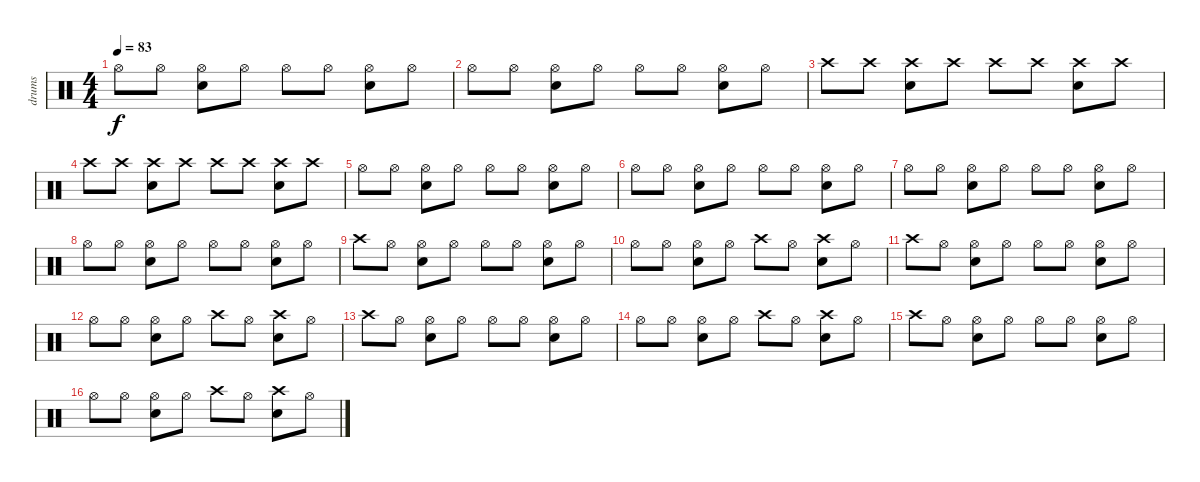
\track ("drums" "drums") {instrument percussion}
\staff {score}
\articulation defaults
\ts (4 4)
\tempo 83
\clef neutral
\ks c "Hi-Hat (open)".8{dy f} "Hi-Hat (open)".8
("Snare (hit) 2" "Hi-Hat (open)").8 "Hi-Hat (open)".8 "Hi-Hat (open)".8 "Hi-Hat (open)".8 ("Snare (hit) 2" "Hi-Hat (open)").8 "Hi-Hat (open)".8 |
"Hi-Hat (open)".8 "Hi-Hat (open)".8 ("Snare (hit) 2" "Hi-Hat (open)").8 "Hi-Hat (open)".8 "Hi-Hat (open)".8 "Hi-Hat (open)".8 ("Snare (hit) 2" "Hi-Hat (open)").8 "Hi-Hat (open)".8 |
"Crash high (hit)".8 "Crash high (hit)".8 ("Crash high (hit)" "Snare (hit) 2").8 "Crash high (hit)".8 "Crash high (hit)".8 "Crash high (hit)".8 ("Crash high (hit)" "Snare (hit) 2").8 "Crash high (hit)".8 |
"Crash high (hit)".8 "Crash high (hit)".8 ("Crash high (hit)" "Snare (hit) 2").8 "Crash high (hit)".8 "Crash high (hit)".8 "Crash high (hit)".8 ("Crash high (hit)" "Snare (hit) 2").8 "Crash high (hit)".8 |
"Hi-Hat (open)".8 "Hi-Hat (open)".8 ("Snare (hit) 2" "Hi-Hat (open)").8 "Hi-Hat (open)".8 "Hi-Hat (open)".8 "Hi-Hat (open)".8 ("Snare (hit) 2" "Hi-Hat (open)").8 "Hi-Hat (open)".8 |
"Hi-Hat (open)".8 "Hi-Hat (open)".8 ("Snare (hit) 2" "Hi-Hat (open)").8 "Hi-Hat (open)".8 "Hi-Hat (open)".8 "Hi-Hat (open)".8 ("Snare (hit) 2" "Hi-Hat (open)").8 "Hi-Hat (open)".8 |
"Hi-Hat (open)".8 "Hi-Hat (open)".8 ("Snare (hit) 2" "Hi-Hat (open)").8 "Hi-Hat (open)".8 "Hi-Hat (open)".8 "Hi-Hat (open)".8 ("Snare (hit) 2" "Hi-Hat (open)").8 "Hi-Hat (open)".8 |
"Hi-Hat (open)".8 "Hi-Hat (open)".8 ("Snare (hit) 2" "Hi-Hat (open)").8 "Hi-Hat (open)".8 "Hi-Hat (open)".8 "Hi-Hat (open)".8 ("Snare (hit) 2" "Hi-Hat (open)").8 "Hi-Hat (open)".8 |
"Crash high (hit)".8 "Hi-Hat (open)".8 ("Snare (hit) 2" "Hi-Hat (open)").8 "Hi-Hat (open)".8 "Hi-Hat (open)".8 "Hi-Hat (open)".8 ("Snare (hit) 2" "Hi-Hat (open)").8 "Hi-Hat (open)".8 |
"Hi-Hat (open)".8 "Hi-Hat (open)".8 ("Snare (hit) 2" "Hi-Hat (open)").8 "Hi-Hat (open)".8 "Crash high (hit)".8 "Hi-Hat (open)".8 ("Crash high (hit)" "Snare (hit) 2").8 "Hi-Hat (open)".8 |
"Crash high (hit)".8 "Hi-Hat (open)".8 ("Snare (hit) 2" "Hi-Hat (open)").8 "Hi-Hat (open)".8 "Hi-Hat (open)".8 "Hi-Hat (open)".8 ("Snare (hit) 2" "Hi-Hat (open)").8 "Hi-Hat (open)".8 |
"Hi-Hat (open)".8 "Hi-Hat (open)".8 ("Snare (hit) 2" "Hi-Hat (open)").8 "Hi-Hat (open)".8 "Crash high (hit)".8 "Hi-Hat (open)".8 ("Crash high (hit)" "Snare (hit) 2").8 "Hi-Hat (open)".8 |
"Crash high (hit)".8 "Hi-Hat (open)".8 ("Snare (hit) 2" "Hi-Hat (open)").8 "Hi-Hat (open)".8 "Hi-Hat (open)".8 "Hi-Hat (open)".8 ("Snare (hit) 2" "Hi-Hat (open)").8 "Hi-Hat (open)".8 |
"Hi-Hat (open)".8 "Hi-Hat (open)".8 ("Snare (hit) 2" "Hi-Hat (open)").8 "Hi-Hat (open)".8 "Crash high (hit)".8 "Hi-Hat (open)".8 ("Crash high (hit)" "Snare (hit) 2").8 "Hi-Hat (open)".8 |
"Crash high (hit)".8 "Hi-Hat (open)".8 ("Snare (hit) 2" "Hi-Hat (open)").8 "Hi-Hat (open)".8 "Hi-Hat (open)".8 "Hi-Hat (open)".8 ("Snare (hit) 2" "Hi-Hat (open)").8 "Hi-Hat (open)".8 |
"Hi-Hat (open)".8 "Hi-Hat (open)".8 ("Snare (hit) 2" "Hi-Hat (open)").8 "Hi-Hat (open)".8 "Crash high (hit)".8 "Hi-Hat (open)".8 ("Crash high (hit)" "Snare (hit) 2").8 "Hi-Hat (open)".8
